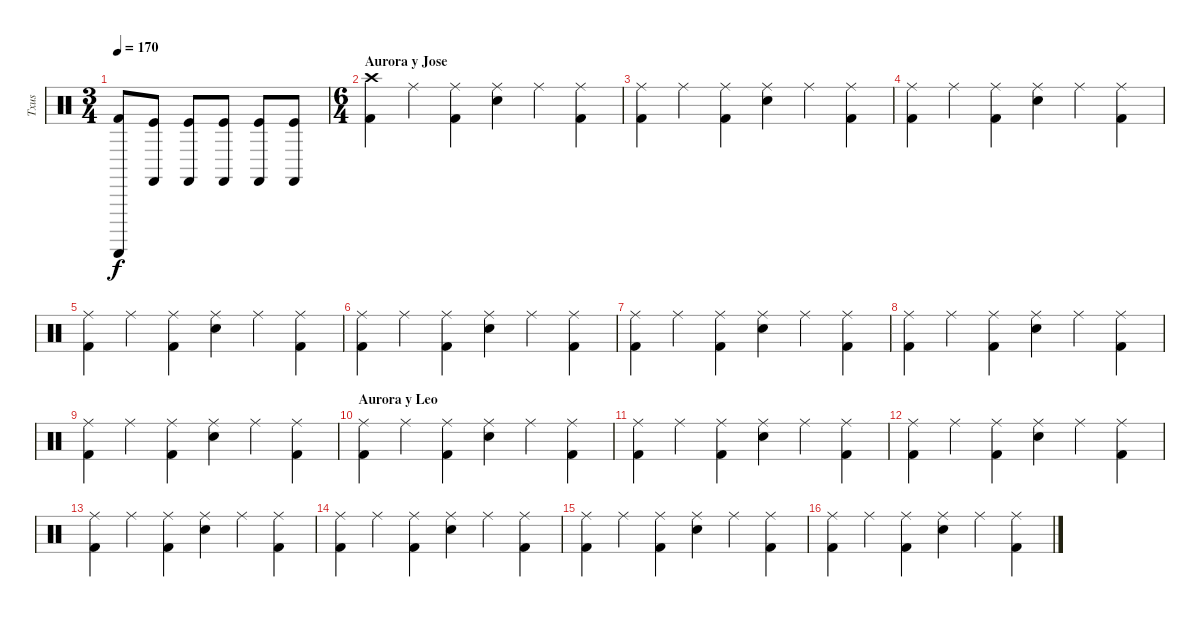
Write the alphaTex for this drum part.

\track ("Txus" "Txus") {instrument percussion}
\staff {score}
\articulation defaults
\ts (3 4)
\tempo 170
\clef neutral
\ks c
("Kick (hit) 2" "Guiro (scrap-return)").8{dy f} ("Kick (hit)" "Castanets (hit)").8 ("Kick (hit)" "Castanets (hit)").8 ("Kick (hit)" "Castanets (hit)").8 ("Kick (hit)" "Castanets (hit)").8 ("Kick (hit)" "Castanets (hit)").8 |
\ts (6 4)
\section ("" "Aurora y Jose")
("Kick (hit) 2" "Crash high (hit)").4{volume 16} "Ride (middle)".4 ("Kick (hit) 2" "Ride (middle)").4 ("Electric Snare (hit)" "Ride (middle)").4 "Ride (middle)".4 ("Kick (hit) 2" "Ride (middle)").4 |
("Kick (hit) 2" "Ride (middle)").4 "Ride (middle)".4 ("Kick (hit) 2" "Ride (middle)").4 ("Electric Snare (hit)" "Ride (middle)").4 "Ride (middle)".4 ("Kick (hit) 2" "Ride (middle)").4 |
("Kick (hit) 2" "Ride (middle)").4 "Ride (middle)".4 ("Kick (hit) 2" "Ride (middle)").4 ("Electric Snare (hit)" "Ride (middle)").4 "Ride (middle)".4 ("Kick (hit) 2" "Ride (middle)").4 |
("Kick (hit) 2" "Ride (middle)").4 "Ride (middle)".4 ("Kick (hit) 2" "Ride (middle)").4 ("Electric Snare (hit)" "Ride (middle)").4 "Ride (middle)".4 ("Kick (hit) 2" "Ride (middle)").4 |
("Kick (hit) 2" "Ride (middle)").4 "Ride (middle)".4 ("Kick (hit) 2" "Ride (middle)").4 ("Electric Snare (hit)" "Ride (middle)").4 "Ride (middle)".4 ("Kick (hit) 2" "Ride (middle)").4 |
("Kick (hit) 2" "Ride (middle)").4 "Ride (middle)".4 ("Kick (hit) 2" "Ride (middle)").4 ("Electric Snare (hit)" "Ride (middle)").4 "Ride (middle)".4 ("Kick (hit) 2" "Ride (middle)").4 |
("Kick (hit) 2" "Ride (middle)").4 "Ride (middle)".4 ("Kick (hit) 2" "Ride (middle)").4 ("Electric Snare (hit)" "Ride (middle)").4 "Ride (middle)".4 ("Kick (hit) 2" "Ride (middle)").4 |
("Kick (hit) 2" "Ride (middle)").4 "Ride (middle)".4 ("Kick (hit) 2" "Ride (middle)").4 ("Electric Snare (hit)" "Ride (middle)").4 "Ride (middle)".4 ("Kick (hit) 2" "Ride (middle)").4 |
\section ("" "Aurora y Leo")
("Kick (hit) 2" "Ride (middle)").4 "Ride (middle)".4 ("Kick (hit) 2" "Ride (middle)").4 ("Electric Snare (hit)" "Ride (middle)").4 "Ride (middle)".4 ("Kick (hit) 2" "Ride (middle)").4 |
("Kick (hit) 2" "Ride (middle)").4 "Ride (middle)".4 ("Kick (hit) 2" "Ride (middle)").4 ("Electric Snare (hit)" "Ride (middle)").4 "Ride (middle)".4 ("Kick (hit) 2" "Ride (middle)").4 |
("Kick (hit) 2" "Ride (middle)").4 "Ride (middle)".4 ("Kick (hit) 2" "Ride (middle)").4 ("Electric Snare (hit)" "Ride (middle)").4 "Ride (middle)".4 ("Kick (hit) 2" "Ride (middle)").4 |
("Kick (hit) 2" "Ride (middle)").4 "Ride (middle)".4 ("Kick (hit) 2" "Ride (middle)").4 ("Electric Snare (hit)" "Ride (middle)").4 "Ride (middle)".4 ("Kick (hit) 2" "Ride (middle)").4 |
("Kick (hit) 2" "Ride (middle)").4 "Ride (middle)".4 ("Kick (hit) 2" "Ride (middle)").4 ("Electric Snare (hit)" "Ride (middle)").4 "Ride (middle)".4 ("Kick (hit) 2" "Ride (middle)").4 |
("Kick (hit) 2" "Ride (middle)").4 "Ride (middle)".4 ("Kick (hit) 2" "Ride (middle)").4 ("Electric Snare (hit)" "Ride (middle)").4 "Ride (middle)".4 ("Kick (hit) 2" "Ride (middle)").4 |
("Kick (hit) 2" "Ride (middle)").4 "Ride (middle)".4 ("Kick (hit) 2" "Ride (middle)").4 ("Electric Snare (hit)" "Ride (middle)").4 "Ride (middle)".4 ("Kick (hit) 2" "Ride (middle)").4
